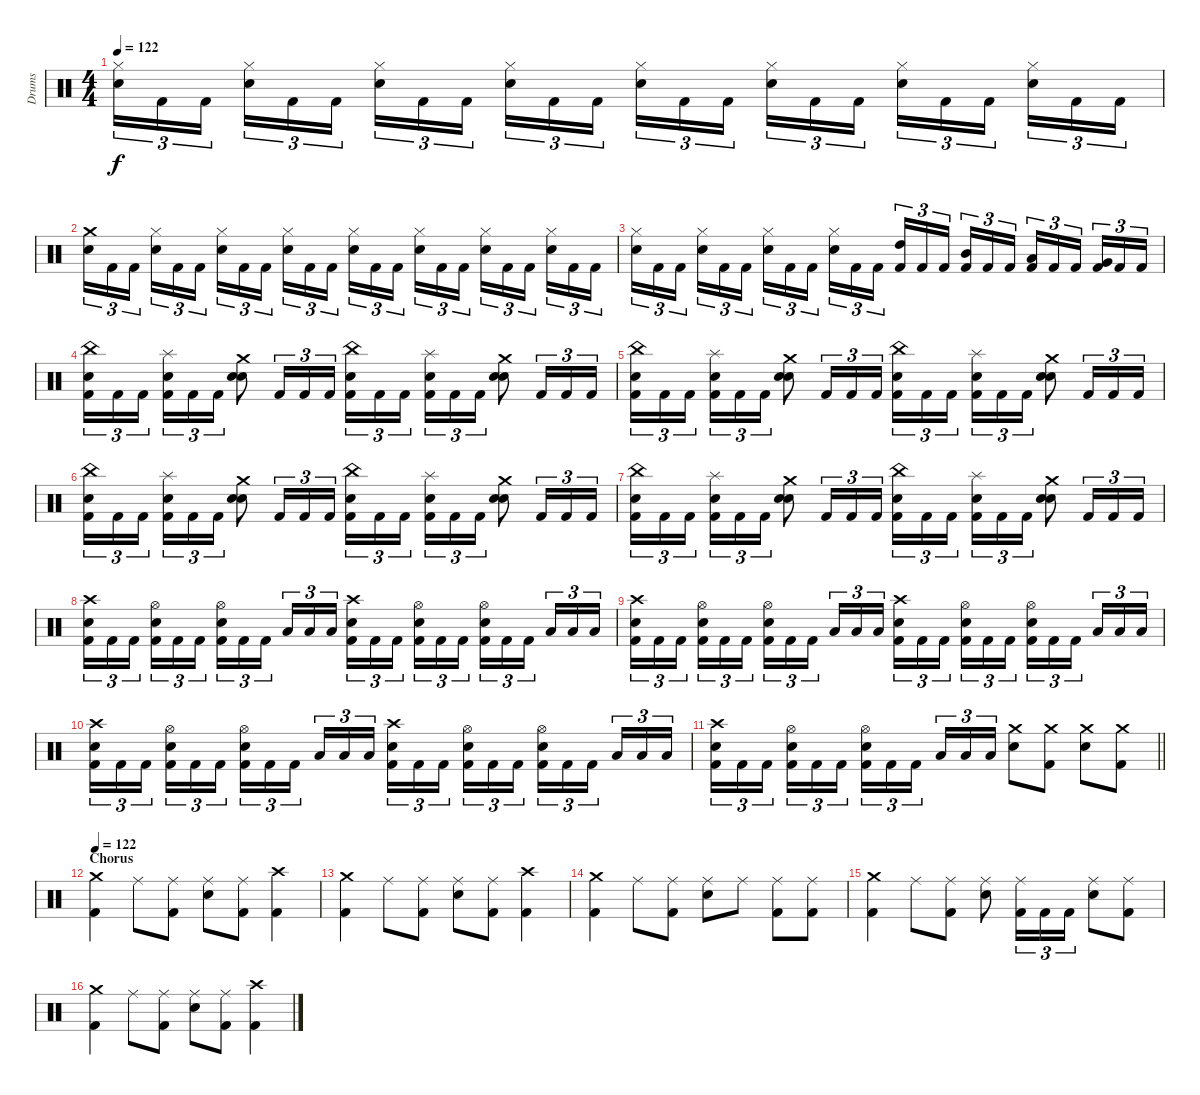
\track ("Drums" "Drums") {instrument percussion}
\staff {score}
\articulation defaults
\ts (4 4)
\tempo 122
\clef neutral
\ks c
("Hi-Hat (closed)" "Electric Snare (hit)").16{tu (3 2) dy f} "Kick (hit) 2".16{tu (3 2)} "Kick (hit) 2".16{tu (3 2)} ("Hi-Hat (closed)" "Electric Snare (hit)").16{tu (3 2)} "Kick (hit) 2".16{tu (3 2)} "Kick (hit) 2".16{tu (3 2)} ("Hi-Hat (closed)" "Electric Snare (hit)").16{tu (3 2)} "Kick (hit) 2".16{tu (3 2)} "Kick (hit) 2".16{tu (3 2)} ("Hi-Hat (closed)" "Electric Snare (hit)").16{tu (3 2)} "Kick (hit) 2".16{tu (3 2)} "Kick (hit) 2".16{tu (3 2)} ("Hi-Hat (closed)" "Electric Snare (hit)").16{tu (3 2)} "Kick (hit) 2".16{tu (3 2)} "Kick (hit) 2".16{tu (3 2)} ("Hi-Hat (closed)" "Electric Snare (hit)").16{tu (3 2)} "Kick (hit) 2".16{tu (3 2)} "Kick (hit) 2".16{tu (3 2)} ("Hi-Hat (closed)" "Electric Snare (hit)").16{tu (3 2)} "Kick (hit) 2".16{tu (3 2)} "Kick (hit) 2".16{tu (3 2)} ("Hi-Hat (closed)" "Electric Snare (hit)").16{tu (3 2)} "Kick (hit) 2".16{tu (3 2)} "Kick (hit) 2".16{tu (3 2)} |
("Crash medium (hit)" "Electric Snare (hit)").16{tu (3 2)} "Kick (hit) 2".16{tu (3 2)} "Kick (hit) 2".16{tu (3 2)} ("Hi-Hat (closed)" "Electric Snare (hit)").16{tu (3 2)} "Kick (hit) 2".16{tu (3 2)} "Kick (hit) 2".16{tu (3 2)} ("Hi-Hat (closed)" "Electric Snare (hit)").16{tu (3 2)} "Kick (hit) 2".16{tu (3 2)} "Kick (hit) 2".16{tu (3 2)} ("Hi-Hat (closed)" "Electric Snare (hit)").16{tu (3 2)} "Kick (hit) 2".16{tu (3 2)} "Kick (hit) 2".16{tu (3 2)} ("Hi-Hat (closed)" "Electric Snare (hit)").16{tu (3 2)} "Kick (hit) 2".16{tu (3 2)} "Kick (hit) 2".16{tu (3 2)} ("Hi-Hat (closed)" "Electric Snare (hit)").16{tu (3 2)} "Kick (hit) 2".16{tu (3 2)} "Kick (hit) 2".16{tu (3 2)} ("Hi-Hat (closed)" "Electric Snare (hit)").16{tu (3 2)} "Kick (hit) 2".16{tu (3 2)} "Kick (hit) 2".16{tu (3 2)} ("Hi-Hat (closed)" "Electric Snare (hit)").16{tu (3 2)} "Kick (hit) 2".16{tu (3 2)} "Kick (hit) 2".16{tu (3 2)} |
("Hi-Hat (closed)" "Electric Snare (hit)").16{tu (3 2)} "Kick (hit) 2".16{tu (3 2)} "Kick (hit) 2".16{tu (3 2)} ("Hi-Hat (closed)" "Electric Snare (hit)").16{tu (3 2)} "Kick (hit) 2".16{tu (3 2)} "Kick (hit) 2".16{tu (3 2)} ("Hi-Hat (closed)" "Electric Snare (hit)").16{tu (3 2)} "Kick (hit) 2".16{tu (3 2)} "Kick (hit) 2".16{tu (3 2)} ("Hi-Hat (closed)" "Electric Snare (hit)").16{tu (3 2)} "Kick (hit) 2".16{tu (3 2)} "Kick (hit) 2".16{tu (3 2)} ("High Tom (hit)" "Kick (hit) 2").16{tu (3 2)} "Kick (hit) 2".16{tu (3 2)} "Kick (hit) 2".16{tu (3 2)} ("Mid Tom (hit)" "Kick (hit) 2").16{tu (3 2)} "Kick (hit) 2".16{tu (3 2)} "Kick (hit) 2".16{tu (3 2)} ("Low Tom (hit)" "Kick (hit) 2").16{tu (3 2)} "Kick (hit) 2".16{tu (3 2)} "Kick (hit) 2".16{tu (3 2)} ("Very Low Tom (hit)" "Kick (hit) 2").16{tu (3 2)} "Kick (hit) 2".16{tu (3 2)} "Kick (hit) 2".16{tu (3 2)} |
("China (hit)" "Electric Snare (hit)" "Kick (hit) 2").16{tu (3 2)} "Kick (hit) 2".16{tu (3 2)} "Kick (hit) 2".16{tu (3 2)} ("Splash (hit)" "Electric Snare (hit)" "Kick (hit) 2").16{tu (3 2)} "Kick (hit) 2".16{tu (3 2)} "Kick (hit) 2".16{tu (3 2)} ("Crash medium (hit)" "Electric Snare (hit)" "Electric Snare (hit)").8 "Kick (hit) 2".16{tu (3 2)} "Kick (hit) 2".16{tu (3 2)} "Kick (hit) 2".16{tu (3 2)} ("China (hit)" "Electric Snare (hit)" "Kick (hit) 2").16{tu (3 2)} "Kick (hit) 2".16{tu (3 2)} "Kick (hit) 2".16{tu (3 2)} ("Splash (hit)" "Electric Snare (hit)" "Kick (hit) 2").16{tu (3 2)} "Kick (hit) 2".16{tu (3 2)} "Kick (hit) 2".16{tu (3 2)} ("Crash medium (hit)" "Electric Snare (hit)" "Electric Snare (hit)").8 "Kick (hit) 2".16{tu (3 2)} "Kick (hit) 2".16{tu (3 2)} "Kick (hit) 2".16{tu (3 2)} |
("China (hit)" "Electric Snare (hit)" "Kick (hit) 2").16{tu (3 2)} "Kick (hit) 2".16{tu (3 2)} "Kick (hit) 2".16{tu (3 2)} ("Splash (hit)" "Electric Snare (hit)" "Kick (hit) 2").16{tu (3 2)} "Kick (hit) 2".16{tu (3 2)} "Kick (hit) 2".16{tu (3 2)} ("Crash medium (hit)" "Electric Snare (hit)" "Electric Snare (hit)").8 "Kick (hit) 2".16{tu (3 2)} "Kick (hit) 2".16{tu (3 2)} "Kick (hit) 2".16{tu (3 2)} ("China (hit)" "Electric Snare (hit)" "Kick (hit) 2").16{tu (3 2)} "Kick (hit) 2".16{tu (3 2)} "Kick (hit) 2".16{tu (3 2)} ("Splash (hit)" "Electric Snare (hit)" "Kick (hit) 2").16{tu (3 2)} "Kick (hit) 2".16{tu (3 2)} "Kick (hit) 2".16{tu (3 2)} ("Crash medium (hit)" "Electric Snare (hit)" "Electric Snare (hit)").8 "Kick (hit) 2".16{tu (3 2)} "Kick (hit) 2".16{tu (3 2)} "Kick (hit) 2".16{tu (3 2)} |
("China (hit)" "Electric Snare (hit)" "Kick (hit) 2").16{tu (3 2)} "Kick (hit) 2".16{tu (3 2)} "Kick (hit) 2".16{tu (3 2)} ("Splash (hit)" "Electric Snare (hit)" "Kick (hit) 2").16{tu (3 2)} "Kick (hit) 2".16{tu (3 2)} "Kick (hit) 2".16{tu (3 2)} ("Crash medium (hit)" "Electric Snare (hit)" "Electric Snare (hit)").8 "Kick (hit) 2".16{tu (3 2)} "Kick (hit) 2".16{tu (3 2)} "Kick (hit) 2".16{tu (3 2)} ("China (hit)" "Electric Snare (hit)" "Kick (hit) 2").16{tu (3 2)} "Kick (hit) 2".16{tu (3 2)} "Kick (hit) 2".16{tu (3 2)} ("Splash (hit)" "Electric Snare (hit)" "Kick (hit) 2").16{tu (3 2)} "Kick (hit) 2".16{tu (3 2)} "Kick (hit) 2".16{tu (3 2)} ("Crash medium (hit)" "Electric Snare (hit)" "Electric Snare (hit)").8 "Kick (hit) 2".16{tu (3 2)} "Kick (hit) 2".16{tu (3 2)} "Kick (hit) 2".16{tu (3 2)} |
("China (hit)" "Electric Snare (hit)" "Kick (hit) 2").16{tu (3 2)} "Kick (hit) 2".16{tu (3 2)} "Kick (hit) 2".16{tu (3 2)} ("Splash (hit)" "Electric Snare (hit)" "Kick (hit) 2").16{tu (3 2)} "Kick (hit) 2".16{tu (3 2)} "Kick (hit) 2".16{tu (3 2)} ("Crash medium (hit)" "Electric Snare (hit)" "Electric Snare (hit)").8 "Kick (hit) 2".16{tu (3 2)} "Kick (hit) 2".16{tu (3 2)} "Kick (hit) 2".16{tu (3 2)} ("China (hit)" "Electric Snare (hit)" "Kick (hit) 2").16{tu (3 2)} "Kick (hit) 2".16{tu (3 2)} "Kick (hit) 2".16{tu (3 2)} ("Splash (hit)" "Electric Snare (hit)" "Kick (hit) 2").16{tu (3 2)} "Kick (hit) 2".16{tu (3 2)} "Kick (hit) 2".16{tu (3 2)} ("Crash medium (hit)" "Electric Snare (hit)" "Electric Snare (hit)").8 "Kick (hit) 2".16{tu (3 2)} "Kick (hit) 2".16{tu (3 2)} "Kick (hit) 2".16{tu (3 2)} |
("Crash high (hit)" "Electric Snare (hit)" "Kick (hit) 2").16{tu (3 2)} "Kick (hit) 2".16{tu (3 2)} "Kick (hit) 2".16{tu (3 2)} ("Hi-Hat (open)" "Electric Snare (hit)" "Kick (hit) 2").16{tu (3 2)} "Kick (hit) 2".16{tu (3 2)} "Kick (hit) 2".16{tu (3 2)} ("Hi-Hat (open)" "Electric Snare (hit)" "Kick (hit) 2").16{tu (3 2)} "Kick (hit) 2".16{tu (3 2)} "Kick (hit) 2".16{tu (3 2)} "Low Tom (hit)".16{tu (3 2)} "Low Tom (hit)".16{tu (3 2)} "Low Tom (hit)".16{tu (3 2)} ("Crash high (hit)" "Electric Snare (hit)" "Kick (hit) 2").16{tu (3 2)} "Kick (hit) 2".16{tu (3 2)} "Kick (hit) 2".16{tu (3 2)} ("Hi-Hat (open)" "Electric Snare (hit)" "Kick (hit) 2").16{tu (3 2)} "Kick (hit) 2".16{tu (3 2)} "Kick (hit) 2".16{tu (3 2)} ("Hi-Hat (open)" "Electric Snare (hit)" "Kick (hit) 2").16{tu (3 2)} "Kick (hit) 2".16{tu (3 2)} "Kick (hit) 2".16{tu (3 2)} "Low Tom (hit)".16{tu (3 2)} "Low Tom (hit)".16{tu (3 2)} "Low Tom (hit)".16{tu (3 2)} |
("Crash high (hit)" "Electric Snare (hit)" "Kick (hit) 2").16{tu (3 2)} "Kick (hit) 2".16{tu (3 2)} "Kick (hit) 2".16{tu (3 2)} ("Hi-Hat (open)" "Electric Snare (hit)" "Kick (hit) 2").16{tu (3 2)} "Kick (hit) 2".16{tu (3 2)} "Kick (hit) 2".16{tu (3 2)} ("Hi-Hat (open)" "Electric Snare (hit)" "Kick (hit) 2").16{tu (3 2)} "Kick (hit) 2".16{tu (3 2)} "Kick (hit) 2".16{tu (3 2)} "Low Tom (hit)".16{tu (3 2)} "Low Tom (hit)".16{tu (3 2)} "Low Tom (hit)".16{tu (3 2)} ("Crash high (hit)" "Electric Snare (hit)" "Kick (hit) 2").16{tu (3 2)} "Kick (hit) 2".16{tu (3 2)} "Kick (hit) 2".16{tu (3 2)} ("Hi-Hat (open)" "Electric Snare (hit)" "Kick (hit) 2").16{tu (3 2)} "Kick (hit) 2".16{tu (3 2)} "Kick (hit) 2".16{tu (3 2)} ("Hi-Hat (open)" "Electric Snare (hit)" "Kick (hit) 2").16{tu (3 2)} "Kick (hit) 2".16{tu (3 2)} "Kick (hit) 2".16{tu (3 2)} "Low Tom (hit)".16{tu (3 2)} "Low Tom (hit)".16{tu (3 2)} "Low Tom (hit)".16{tu (3 2)} |
("Crash high (hit)" "Electric Snare (hit)" "Kick (hit) 2").16{tu (3 2)} "Kick (hit) 2".16{tu (3 2)} "Kick (hit) 2".16{tu (3 2)} ("Hi-Hat (open)" "Electric Snare (hit)" "Kick (hit) 2").16{tu (3 2)} "Kick (hit) 2".16{tu (3 2)} "Kick (hit) 2".16{tu (3 2)} ("Hi-Hat (open)" "Electric Snare (hit)" "Kick (hit) 2").16{tu (3 2)} "Kick (hit) 2".16{tu (3 2)} "Kick (hit) 2".16{tu (3 2)} "Low Tom (hit)".16{tu (3 2)} "Low Tom (hit)".16{tu (3 2)} "Low Tom (hit)".16{tu (3 2)} ("Crash high (hit)" "Electric Snare (hit)" "Kick (hit) 2").16{tu (3 2)} "Kick (hit) 2".16{tu (3 2)} "Kick (hit) 2".16{tu (3 2)} ("Hi-Hat (open)" "Electric Snare (hit)" "Kick (hit) 2").16{tu (3 2)} "Kick (hit) 2".16{tu (3 2)} "Kick (hit) 2".16{tu (3 2)} ("Hi-Hat (open)" "Electric Snare (hit)" "Kick (hit) 2").16{tu (3 2)} "Kick (hit) 2".16{tu (3 2)} "Kick (hit) 2".16{tu (3 2)} "Low Tom (hit)".16{tu (3 2)} "Low Tom (hit)".16{tu (3 2)} "Low Tom (hit)".16{tu (3 2)} |
\barLineRight lightlight
("Crash high (hit)" "Electric Snare (hit)" "Kick (hit) 2").16{tu (3 2)} "Kick (hit) 2".16{tu (3 2)} "Kick (hit) 2".16{tu (3 2)} ("Hi-Hat (open)" "Electric Snare (hit)" "Kick (hit) 2").16{tu (3 2)} "Kick (hit) 2".16{tu (3 2)} "Kick (hit) 2".16{tu (3 2)} ("Hi-Hat (open)" "Electric Snare (hit)" "Kick (hit) 2").16{tu (3 2)} "Kick (hit) 2".16{tu (3 2)} "Kick (hit) 2".16{tu (3 2)} "Low Tom (hit)".16{tu (3 2)} "Low Tom (hit)".16{tu (3 2)} "Low Tom (hit)".16{tu (3 2)} ("Crash medium (hit)" "Electric Snare (hit)").8 ("Crash medium (hit)" "Kick (hit) 2").8 ("Crash medium (hit)" "Electric Snare (hit)").8 ("Crash medium (hit)" "Kick (hit) 2").8 |
\section ("" "Chorus")
\tempo 122
("Crash medium (hit)" "Kick (hit) 2").4 "Ride (middle)".8 ("Ride (middle)" "Kick (hit) 2").8 ("Ride (middle)" "Electric Snare (hit)").8 ("Ride (middle)" "Kick (hit) 2").8 ("Crash high (hit)" "Kick (hit) 2").4 |
("Crash medium (hit)" "Kick (hit) 2").4 "Ride (middle)".8 ("Ride (middle)" "Kick (hit) 2").8 ("Ride (middle)" "Electric Snare (hit)").8 ("Ride (middle)" "Kick (hit) 2").8 ("Crash high (hit)" "Kick (hit) 2").4 |
("Crash medium (hit)" "Kick (hit) 2").4 "Ride (middle)".8 ("Ride (middle)" "Kick (hit) 2").8 ("Ride (middle)" "Electric Snare (hit)").8 "Ride (middle)".8 ("Ride (middle)" "Kick (hit) 2").8 ("Ride (middle)" "Kick (hit) 2").8 |
("Crash medium (hit)" "Kick (hit) 2").4 "Ride (middle)".8 ("Ride (middle)" "Kick (hit) 2").8 ("Ride (middle)" "Electric Snare (hit)").8 ("Ride (middle)" "Kick (hit) 2").16{tu (3 2)} "Kick (hit) 2".16{tu (3 2)} "Kick (hit) 2".16{tu (3 2)} ("Ride (middle)" "Electric Snare (hit)").8 ("Ride (middle)" "Kick (hit) 2").8 |
("Crash medium (hit)" "Kick (hit) 2").4 "Ride (middle)".8 ("Ride (middle)" "Kick (hit) 2").8 ("Ride (middle)" "Electric Snare (hit)").8 ("Ride (middle)" "Kick (hit) 2").8 ("Crash high (hit)" "Kick (hit) 2").4
